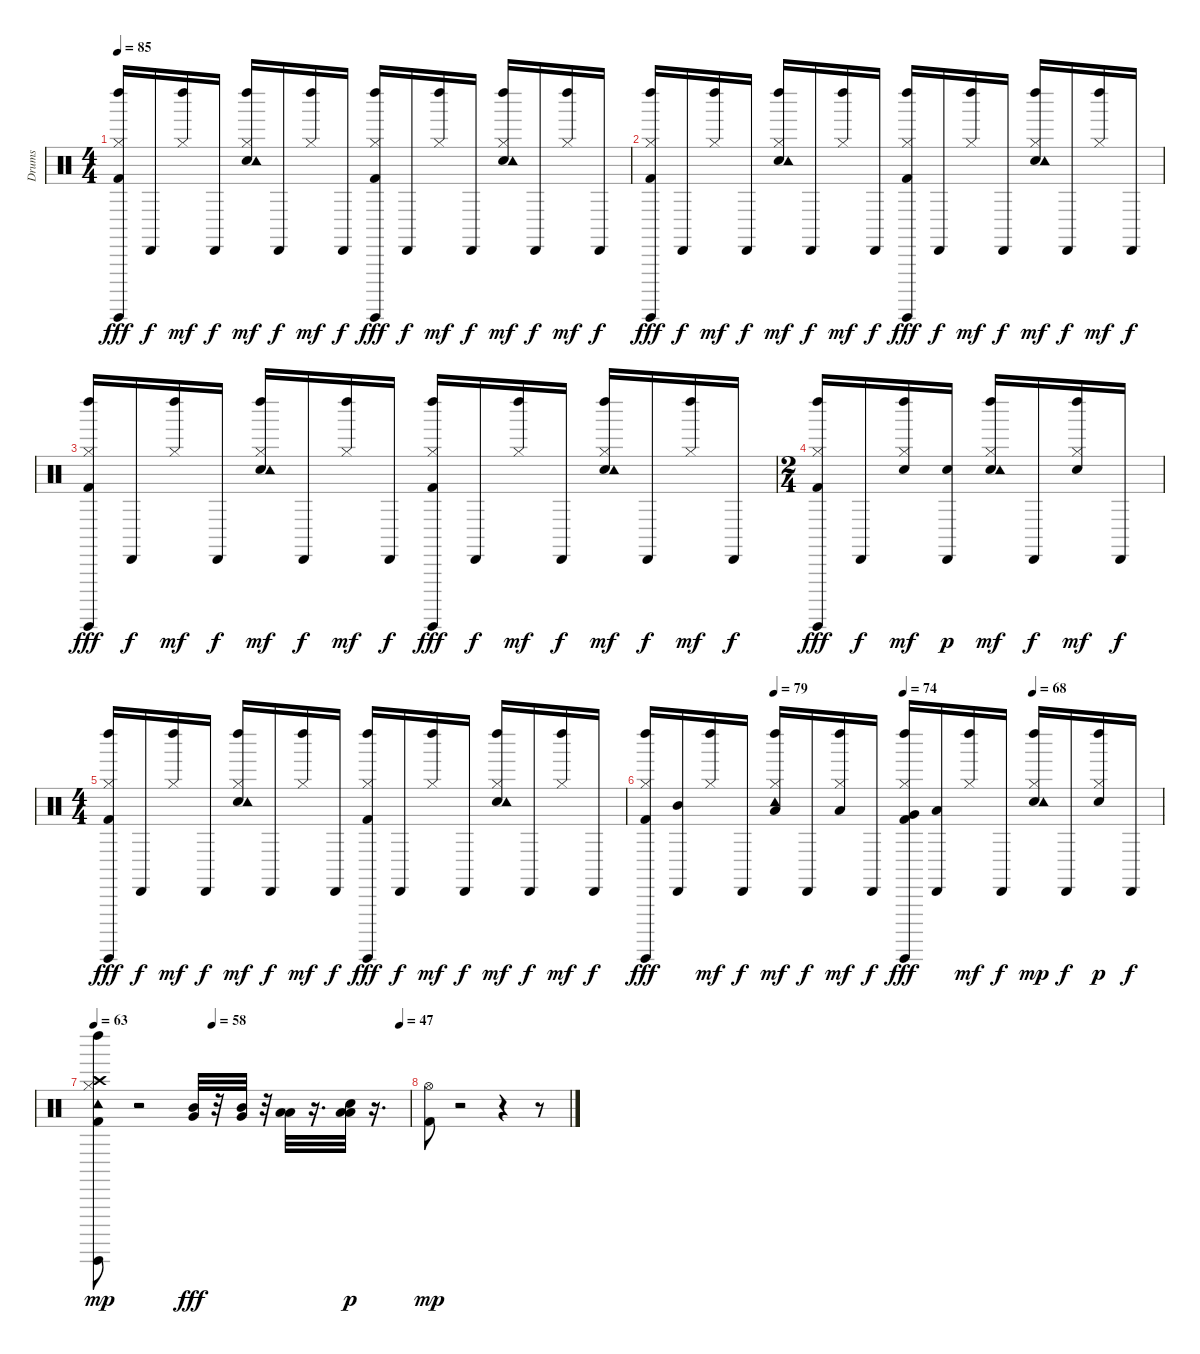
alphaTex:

\track ("Drums" "Drums") {instrument percussion}
\staff {score}
\articulation defaults
\ts (4 4)
\tempo 85
\clef neutral
\ks c
("Hi-Hat (closed)" "Kick (hit) 2" "Guiro (hit)" "Left Maraca (hit)").16{dy fff} "Cabasa (hit)".16{dy f} ("Hi-Hat (closed)" "Left Maraca (hit)").16{dy mf} "Cabasa (hit)".16{dy f} ("Hi-Hat (closed)" "Electric Snare (hit)" "Left Maraca (hit)" "Tambourine (hit)").16{dy mf} "Cabasa (hit)".16{dy f} ("Hi-Hat (closed)" "Left Maraca (hit)").16{dy mf} "Cabasa (hit)".16{dy f} ("Hi-Hat (closed)" "Kick (hit) 2" "Guiro (hit)" "Left Maraca (hit)").16{dy fff} "Cabasa (hit)".16{dy f} ("Hi-Hat (closed)" "Left Maraca (hit)").16{dy mf} "Cabasa (hit)".16{dy f} ("Hi-Hat (closed)" "Electric Snare (hit)" "Left Maraca (hit)" "Tambourine (hit)").16{dy mf} "Cabasa (hit)".16{dy f} ("Hi-Hat (closed)" "Left Maraca (hit)").16{dy mf} "Cabasa (hit)".16{dy f} |
("Hi-Hat (closed)" "Kick (hit) 2" "Guiro (hit)" "Left Maraca (hit)").16{dy fff} "Cabasa (hit)".16{dy f} ("Hi-Hat (closed)" "Left Maraca (hit)").16{dy mf} "Cabasa (hit)".16{dy f} ("Hi-Hat (closed)" "Electric Snare (hit)" "Left Maraca (hit)" "Tambourine (hit)").16{dy mf} "Cabasa (hit)".16{dy f} ("Hi-Hat (closed)" "Left Maraca (hit)").16{dy mf} "Cabasa (hit)".16{dy f} ("Hi-Hat (closed)" "Kick (hit) 2" "Guiro (hit)" "Left Maraca (hit)").16{dy fff} "Cabasa (hit)".16{dy f} ("Hi-Hat (closed)" "Left Maraca (hit)").16{dy mf} "Cabasa (hit)".16{dy f} ("Hi-Hat (closed)" "Electric Snare (hit)" "Left Maraca (hit)" "Tambourine (hit)").16{dy mf} "Cabasa (hit)".16{dy f} ("Hi-Hat (closed)" "Left Maraca (hit)").16{dy mf} "Cabasa (hit)".16{dy f} |
("Hi-Hat (closed)" "Kick (hit) 2" "Guiro (hit)" "Left Maraca (hit)").16{dy fff} "Cabasa (hit)".16{dy f} ("Hi-Hat (closed)" "Left Maraca (hit)").16{dy mf} "Cabasa (hit)".16{dy f} ("Hi-Hat (closed)" "Electric Snare (hit)" "Left Maraca (hit)" "Tambourine (hit)").16{dy mf} "Cabasa (hit)".16{dy f} ("Hi-Hat (closed)" "Left Maraca (hit)").16{dy mf} "Cabasa (hit)".16{dy f} ("Hi-Hat (closed)" "Kick (hit) 2" "Guiro (hit)" "Left Maraca (hit)").16{dy fff} "Cabasa (hit)".16{dy f} ("Hi-Hat (closed)" "Left Maraca (hit)").16{dy mf} "Cabasa (hit)".16{dy f} ("Hi-Hat (closed)" "Electric Snare (hit)" "Left Maraca (hit)" "Tambourine (hit)").16{dy mf} "Cabasa (hit)".16{dy f} ("Hi-Hat (closed)" "Left Maraca (hit)").16{dy mf} "Cabasa (hit)".16{dy f} |
\ts (2 4)
("Hi-Hat (closed)" "Kick (hit) 2" "Guiro (hit)" "Left Maraca (hit)").16{dy fff} "Cabasa (hit)".16{dy f} ("Snare (hit) 2" "Hi-Hat (closed)" "Left Maraca (hit)").16{dy mf} ("Electric Snare (hit)" "Cabasa (hit)").16{dy p} ("Hi-Hat (closed)" "Electric Snare (hit)" "Left Maraca (hit)" "Tambourine (hit)").16{dy mf} "Cabasa (hit)".16{dy f} ("Snare (hit) 2" "Hi-Hat (closed)" "Left Maraca (hit)").16{dy mf} "Cabasa (hit)".16{dy f} |
\ts (4 4)
("Hi-Hat (closed)" "Kick (hit) 2" "Guiro (hit)" "Left Maraca (hit)").16{dy fff} "Cabasa (hit)".16{dy f} ("Hi-Hat (closed)" "Left Maraca (hit)").16{dy mf} "Cabasa (hit)".16{dy f} ("Hi-Hat (closed)" "Electric Snare (hit)" "Left Maraca (hit)" "Tambourine (hit)").16{dy mf} "Cabasa (hit)".16{dy f} ("Hi-Hat (closed)" "Left Maraca (hit)").16{dy mf} "Cabasa (hit)".16{dy f} ("Hi-Hat (closed)" "Kick (hit) 2" "Guiro (hit)" "Left Maraca (hit)").16{dy fff} "Cabasa (hit)".16{dy f} ("Hi-Hat (closed)" "Left Maraca (hit)").16{dy mf} "Cabasa (hit)".16{dy f} ("Hi-Hat (closed)" "Electric Snare (hit)" "Left Maraca (hit)" "Tambourine (hit)").16{dy mf} "Cabasa (hit)".16{dy f} ("Hi-Hat (closed)" "Left Maraca (hit)").16{dy mf} "Cabasa (hit)".16{dy f} |
\tempo (79 0.25)
\tempo (74 0.5)
\tempo (68 0.75)
("Hi-Hat (closed)" "Kick (hit) 2" "Guiro (hit)" "Left Maraca (hit)").16{dy fff} ("Mid Tom (hit)" "Cabasa (hit)").16 ("Hi-Hat (closed)" "Left Maraca (hit)").16{dy mf} "Cabasa (hit)".16{dy f} ("Low Tom (hit)" "Hi-Hat (closed)" "Left Maraca (hit)" "Tambourine (hit)").16{dy mf} "Cabasa (hit)".16{dy f} ("Low Tom (hit)" "Hi-Hat (closed)" "Left Maraca (hit)").16{dy mf} "Cabasa (hit)".16{dy f} ("Very Low Tom (hit)" "Hi-Hat (closed)" "Kick (hit) 2" "Guiro (hit)" "Left Maraca (hit)").16{dy fff} ("Low Tom (hit)" "Cabasa (hit)").16 ("Hi-Hat (closed)" "Left Maraca (hit)").16{dy mf} "Cabasa (hit)".16{dy f} ("Hi-Hat (closed)" "Electric Snare (hit)" "Left Maraca (hit)" "Tambourine (hit)").16{dy mp} "Cabasa (hit)".16{dy f} ("Hi-Hat (closed)" "Snare (hit) 2" "Left Maraca (hit)").16{dy p} "Cabasa (hit)".16{dy f} |
\tempo 63
\tempo (58 0.375)
\tempo (47 0.96875)
("Crash high (hit)" "Hi-Hat (closed)" "Kick (hit) 2" "Tambourine (hit)" "Guiro (hit)" "Left Maraca (hit)").8{dy mp} r.2 ("Mid Tom (hit)" "Very Low Tom (hit)").32{dy fff} r.32 ("Mid Tom (hit)" "Very Low Tom (hit)").32 r.32 ("Low Tom (hit)" "Low Floor Tom (hit)").32 r.16{d} ("Low Floor Tom (hit)" "Low Tom (hit)" "Snare (hit) 2").32{dy p} r.16{d} |
("Hi-Hat (open)" "Kick (hit) 2").8{dy mp} r.2 r.4 r.8
